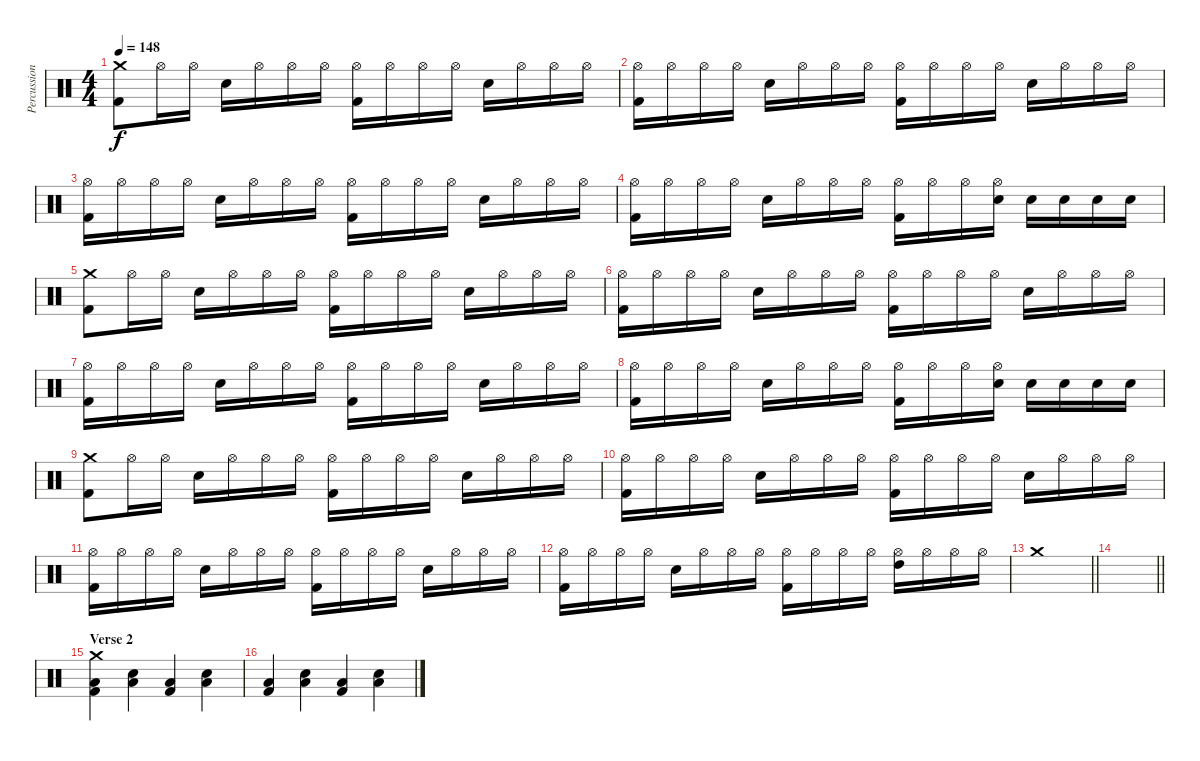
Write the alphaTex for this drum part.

\track ("Percussion" "Percussion") {instrument percussion}
\staff {score}
\articulation defaults
\ts (4 4)
\tempo 148
\clef neutral
\ks c
("Crash medium (hit)" "Kick (hit) 2").8{dy f} "Hi-Hat (open)".16 "Hi-Hat (open)".16 "Snare (hit) 2".16 "Hi-Hat (open)".16 "Hi-Hat (open)".16 "Hi-Hat (open)".16 ("Hi-Hat (open)" "Kick (hit) 2").16 "Hi-Hat (open)".16 "Hi-Hat (open)".16 "Hi-Hat (open)".16 "Snare (hit) 2".16 "Hi-Hat (open)".16 "Hi-Hat (open)".16 "Hi-Hat (open)".16 |
("Hi-Hat (open)" "Kick (hit) 2").16 "Hi-Hat (open)".16 "Hi-Hat (open)".16 "Hi-Hat (open)".16 "Snare (hit) 2".16 "Hi-Hat (open)".16 "Hi-Hat (open)".16 "Hi-Hat (open)".16 ("Hi-Hat (open)" "Kick (hit) 2").16 "Hi-Hat (open)".16 "Hi-Hat (open)".16 "Hi-Hat (open)".16 "Snare (hit) 2".16 "Hi-Hat (open)".16 "Hi-Hat (open)".16 "Hi-Hat (open)".16 |
("Hi-Hat (open)" "Kick (hit) 2").16 "Hi-Hat (open)".16 "Hi-Hat (open)".16 "Hi-Hat (open)".16 "Snare (hit) 2".16 "Hi-Hat (open)".16 "Hi-Hat (open)".16 "Hi-Hat (open)".16 ("Hi-Hat (open)" "Kick (hit) 2").16 "Hi-Hat (open)".16 "Hi-Hat (open)".16 "Hi-Hat (open)".16 "Snare (hit) 2".16 "Hi-Hat (open)".16 "Hi-Hat (open)".16 "Hi-Hat (open)".16 |
("Hi-Hat (open)" "Kick (hit) 2").16 "Hi-Hat (open)".16 "Hi-Hat (open)".16 "Hi-Hat (open)".16 "Snare (hit) 2".16 "Hi-Hat (open)".16 "Hi-Hat (open)".16 "Hi-Hat (open)".16 ("Hi-Hat (open)" "Kick (hit) 2").16 "Hi-Hat (open)".16 "Hi-Hat (open)".16 ("Hi-Hat (open)" "Snare (hit) 2").16 "Snare (hit) 2".16 "Snare (hit) 2".16 "Snare (hit) 2".16 "Snare (hit) 2".16 |
("Crash medium (hit)" "Kick (hit) 2").8 "Hi-Hat (open)".16 "Hi-Hat (open)".16 "Snare (hit) 2".16 "Hi-Hat (open)".16 "Hi-Hat (open)".16 "Hi-Hat (open)".16 ("Hi-Hat (open)" "Kick (hit) 2").16 "Hi-Hat (open)".16 "Hi-Hat (open)".16 "Hi-Hat (open)".16 "Snare (hit) 2".16 "Hi-Hat (open)".16 "Hi-Hat (open)".16 "Hi-Hat (open)".16 |
("Hi-Hat (open)" "Kick (hit) 2").16 "Hi-Hat (open)".16 "Hi-Hat (open)".16 "Hi-Hat (open)".16 "Snare (hit) 2".16 "Hi-Hat (open)".16 "Hi-Hat (open)".16 "Hi-Hat (open)".16 ("Hi-Hat (open)" "Kick (hit) 2").16 "Hi-Hat (open)".16 "Hi-Hat (open)".16 "Hi-Hat (open)".16 "Snare (hit) 2".16 "Hi-Hat (open)".16 "Hi-Hat (open)".16 "Hi-Hat (open)".16 |
("Hi-Hat (open)" "Kick (hit) 2").16 "Hi-Hat (open)".16 "Hi-Hat (open)".16 "Hi-Hat (open)".16 "Snare (hit) 2".16 "Hi-Hat (open)".16 "Hi-Hat (open)".16 "Hi-Hat (open)".16 ("Hi-Hat (open)" "Kick (hit) 2").16 "Hi-Hat (open)".16 "Hi-Hat (open)".16 "Hi-Hat (open)".16 "Snare (hit) 2".16 "Hi-Hat (open)".16 "Hi-Hat (open)".16 "Hi-Hat (open)".16 |
("Hi-Hat (open)" "Kick (hit) 2").16 "Hi-Hat (open)".16 "Hi-Hat (open)".16 "Hi-Hat (open)".16 "Snare (hit) 2".16 "Hi-Hat (open)".16 "Hi-Hat (open)".16 "Hi-Hat (open)".16 ("Hi-Hat (open)" "Kick (hit) 2").16 "Hi-Hat (open)".16 "Hi-Hat (open)".16 ("Hi-Hat (open)" "Snare (hit) 2").16 "Snare (hit) 2".16 "Snare (hit) 2".16 "Snare (hit) 2".16 "Snare (hit) 2".16 |
("Crash medium (hit)" "Kick (hit) 2").8 "Hi-Hat (open)".16 "Hi-Hat (open)".16 "Snare (hit) 2".16 "Hi-Hat (open)".16 "Hi-Hat (open)".16 "Hi-Hat (open)".16 ("Hi-Hat (open)" "Kick (hit) 2").16 "Hi-Hat (open)".16 "Hi-Hat (open)".16 "Hi-Hat (open)".16 "Snare (hit) 2".16 "Hi-Hat (open)".16 "Hi-Hat (open)".16 "Hi-Hat (open)".16 |
("Hi-Hat (open)" "Kick (hit) 2").16 "Hi-Hat (open)".16 "Hi-Hat (open)".16 "Hi-Hat (open)".16 "Snare (hit) 2".16 "Hi-Hat (open)".16 "Hi-Hat (open)".16 "Hi-Hat (open)".16 ("Hi-Hat (open)" "Kick (hit) 2").16 "Hi-Hat (open)".16 "Hi-Hat (open)".16 "Hi-Hat (open)".16 "Snare (hit) 2".16 "Hi-Hat (open)".16 "Hi-Hat (open)".16 "Hi-Hat (open)".16 |
("Hi-Hat (open)" "Kick (hit) 2").16 "Hi-Hat (open)".16 "Hi-Hat (open)".16 "Hi-Hat (open)".16 "Snare (hit) 2".16 "Hi-Hat (open)".16 "Hi-Hat (open)".16 "Hi-Hat (open)".16 ("Hi-Hat (open)" "Kick (hit) 2").16 "Hi-Hat (open)".16 "Hi-Hat (open)".16 "Hi-Hat (open)".16 "Snare (hit) 2".16 "Hi-Hat (open)".16 "Hi-Hat (open)".16 "Hi-Hat (open)".16 |
("Hi-Hat (open)" "Kick (hit) 2").16 "Hi-Hat (open)".16 "Hi-Hat (open)".16 "Hi-Hat (open)".16 "Snare (hit) 2".16 "Hi-Hat (open)".16 "Hi-Hat (open)".16 "Hi-Hat (open)".16 ("Hi-Hat (open)" "Kick (hit) 2").16 "Hi-Hat (open)".16 "Hi-Hat (open)".16 "Hi-Hat (open)".16 ("Hi-Hat (open)" "High Tom (hit)").16 "Hi-Hat (open)".16 "Hi-Hat (open)".16 "Hi-Hat (open)".16 |
\barLineRight lightlight "Crash medium (hit)".1
|
\section ("" "")
\barLineRight lightlight
|
\section ("" "Verse 2")
("Crash medium (hit)" "Low Floor Tom (hit)" "Kick (hit) 2").4 ("Low Floor Tom (hit)" "Snare (hit) 2").4 ("Low Floor Tom (hit)" "Kick (hit) 2").4 ("Low Floor Tom (hit)" "Snare (hit) 2").4 |
("Low Floor Tom (hit)" "Kick (hit) 2").4 ("Low Floor Tom (hit)" "Snare (hit) 2").4 ("Low Floor Tom (hit)" "Kick (hit) 2").4 ("Low Floor Tom (hit)" "Snare (hit) 2").4
